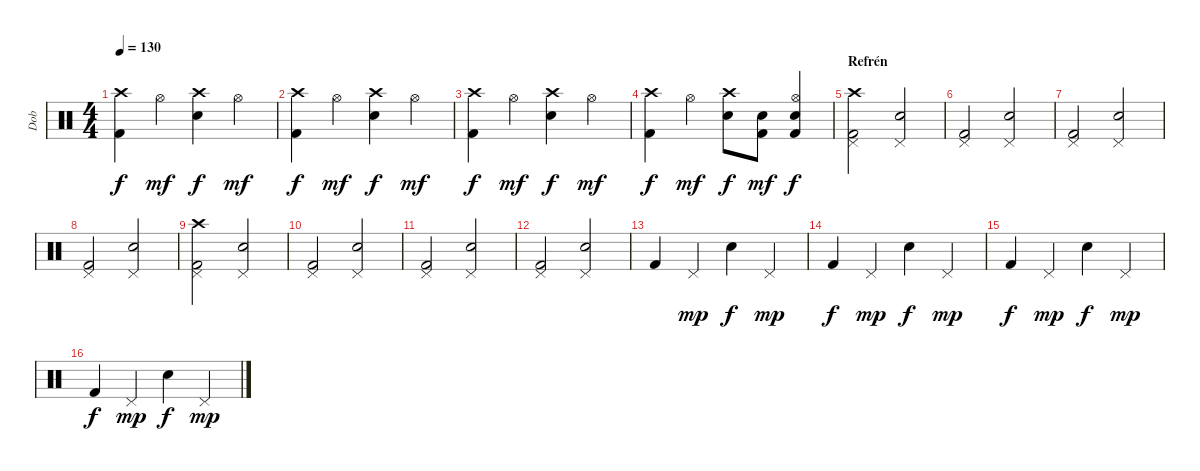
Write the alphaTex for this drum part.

\track ("Dob" "Dob") {instrument percussion}
\staff {score}
\articulation defaults
\ts (4 4)
\tempo 130
\clef neutral
\ks c
("Crash high (hit)" "Kick (hit) 2").4{dy f} "Hi-Hat (open)".4{dy mf} ("Crash high (hit)" "Snare (hit) 2").4{dy f} "Hi-Hat (open)".4{dy mf} |
("Crash high (hit)" "Kick (hit) 2").4{dy f} "Hi-Hat (open)".4{dy mf} ("Crash high (hit)" "Snare (hit) 2").4{dy f} "Hi-Hat (open)".4{dy mf} |
("Crash high (hit)" "Kick (hit) 2").4{dy f} "Hi-Hat (open)".4{dy mf} ("Crash high (hit)" "Snare (hit) 2").4{dy f} "Hi-Hat (open)".4{dy mf} |
("Crash high (hit)" "Kick (hit) 2").4{dy f} "Hi-Hat (open)".4{dy mf} ("Crash high (hit)" "Snare (hit) 2").8{dy f} ("Snare (hit) 2" "Kick (hit) 2").8{dy mf} ("Hi-Hat (open)" "Snare (hit) 2" "Kick (hit) 2").4{dy f} |
\section ("" "Refrén")
("Crash high (hit)" "Pedal Hi-Hat (hit)" "Kick (hit) 2").2 ("Pedal Hi-Hat (hit)" "Snare (hit) 2").2 |
("Pedal Hi-Hat (hit)" "Kick (hit) 2").2 ("Pedal Hi-Hat (hit)" "Snare (hit) 2").2 |
("Pedal Hi-Hat (hit)" "Kick (hit) 2").2 ("Pedal Hi-Hat (hit)" "Snare (hit) 2").2 |
("Pedal Hi-Hat (hit)" "Kick (hit) 2").2 ("Pedal Hi-Hat (hit)" "Snare (hit) 2").2 |
("Crash high (hit)" "Pedal Hi-Hat (hit)" "Kick (hit) 2").2 ("Pedal Hi-Hat (hit)" "Snare (hit) 2").2 |
("Pedal Hi-Hat (hit)" "Kick (hit) 2").2 ("Pedal Hi-Hat (hit)" "Snare (hit) 2").2 |
("Pedal Hi-Hat (hit)" "Kick (hit) 2").2 ("Pedal Hi-Hat (hit)" "Snare (hit) 2").2 |
("Pedal Hi-Hat (hit)" "Kick (hit) 2").2 ("Pedal Hi-Hat (hit)" "Snare (hit) 2").2 |
"Kick (hit) 2".4 "Pedal Hi-Hat (hit)".4{dy mp} "Snare (hit) 2".4{dy f} "Pedal Hi-Hat (hit)".4{dy mp} |
"Kick (hit) 2".4{dy f} "Pedal Hi-Hat (hit)".4{dy mp} "Snare (hit) 2".4{dy f} "Pedal Hi-Hat (hit)".4{dy mp} |
"Kick (hit) 2".4{dy f} "Pedal Hi-Hat (hit)".4{dy mp} "Snare (hit) 2".4{dy f} "Pedal Hi-Hat (hit)".4{dy mp} |
"Kick (hit) 2".4{dy f} "Pedal Hi-Hat (hit)".4{dy mp} "Snare (hit) 2".4{dy f} "Pedal Hi-Hat (hit)".4{dy mp}
